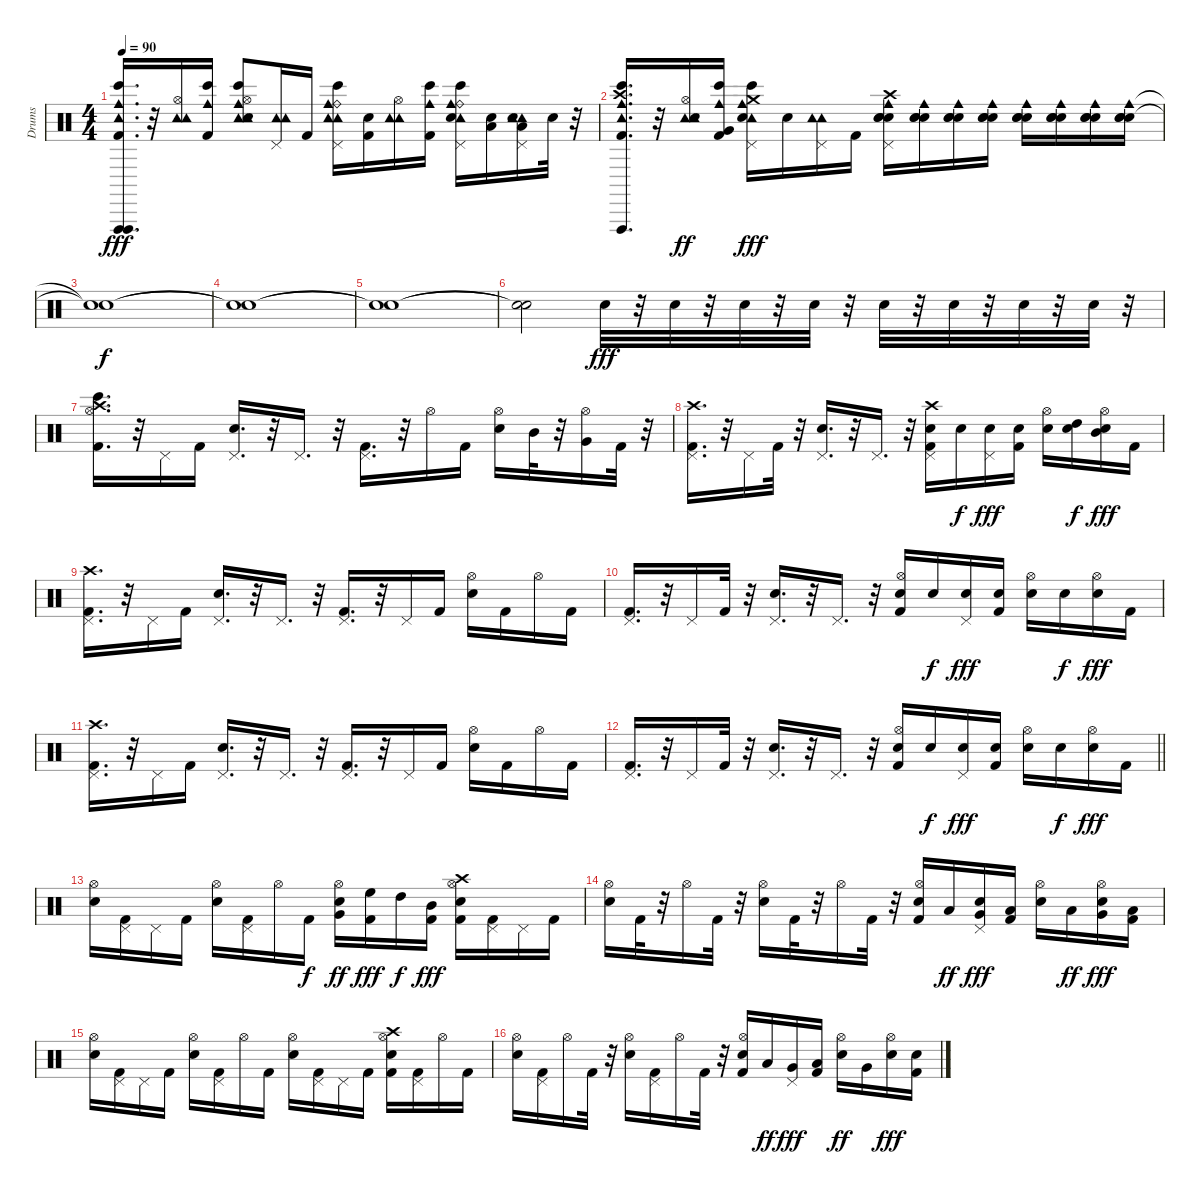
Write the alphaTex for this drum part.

\track ("Drums" "Drums") {instrument percussion}
\staff {score}
\articulation defaults
\ts (4 4)
\tempo 90
\clef neutral
\ks c
("Vibraslap (hit)" "Tambourine (hit)" "Vibraslap (hit)" "Cowbell medium (hit)" "Bongo High (hit)" "Kick (hit) 2").16{d dy fff} r.32 ("Tambourine (hit)" "Hi-Hat (open)" "Tambourine (hit)").16 ("Kick (hit) 2" "Bongo High (hit)" "Cowbell medium (hit)").16 ("Tambourine (hit)" "Hi-Hat (open)" "Cowbell medium (hit)" "Electric Snare (hit)" "Bongo High (hit)" "Tambourine (hit)").8 ("Tambourine (hit)" "Pedal Hi-Hat (hit)" "Tambourine (hit)").16 "Kick (hit) 2".16 ("Tambourine (hit)" "Pedal Hi-Hat (hit)" "Ride (bell)" "Cowbell medium (hit)" "Bongo High (hit)" "Tambourine (hit)").16 ("Kick (hit) 2" "Electric Snare (hit)").16 ("Tambourine (hit)" "Tambourine (hit)" "Hi-Hat (open)").16 ("Cowbell medium (hit)" "Kick (hit) 2" "Bongo High (hit)").16 ("Tambourine (hit)" "Pedal Hi-Hat (hit)" "Ride (bell)" "Cowbell medium (hit)" "Electric Snare (hit)" "Bongo High (hit)").16 ("Low Tom (hit)" "Electric Snare (hit)").16 ("Tambourine (hit)" "Pedal Hi-Hat (hit)" "Tambourine (hit)" "Low Floor Tom (hit)" "Electric Snare (hit)").16 "Electric Snare (hit)".32 r.32 |
("Tambourine (hit)" "Vibraslap (hit)" "Cowbell medium (hit)" "Bongo High (hit)" "Crash high (hit)" "Kick (hit) 2").16{d} r.32 ("Tambourine (hit)" "Hi-Hat (open)" "Tambourine (hit)" "Electric Snare (hit)").16{dy ff} ("Kick (hit) 2" "Bongo High (hit)" "Cowbell medium (hit)" "Very Low Tom (hit)").16 ("Crash medium (hit)" "Tambourine (hit)" "Pedal Hi-Hat (hit)" "Cowbell medium (hit)" "Electric Snare (hit)" "Bongo High (hit)").16{dy fff} "Electric Snare (hit)".16 ("Tambourine (hit)" "Pedal Hi-Hat (hit)" "Tambourine (hit)").16 "Kick (hit) 2".16 ("Pedal Hi-Hat (hit)" "Cowbell medium (hit)" "Crash high (hit)" "Electric Snare (hit)" "Electric Snare (hit)" "Electric Snare (hit)").16 ("Electric Snare (hit)" "Cowbell medium (hit)" "Electric Snare (hit)" "Electric Snare (hit)").16 ("Electric Snare (hit)" "Cowbell medium (hit)" "Electric Snare (hit)" "Electric Snare (hit)").16 ("Electric Snare (hit)" "Electric Snare (hit)" "Cowbell medium (hit)" "Electric Snare (hit)").16 ("Electric Snare (hit)" "Cowbell medium (hit)" "Electric Snare (hit)" "Electric Snare (hit)").16 ("Electric Snare (hit)" "Cowbell medium (hit)" "Electric Snare (hit)" "Electric Snare (hit)").16 ("Electric Snare (hit)" "Cowbell medium (hit)" "Electric Snare (hit)" "Electric Snare (hit)").16 ("Electric Snare (hit)" "Cowbell medium (hit)" "Electric Snare (hit)" "Electric Snare (hit)").16 |
("Snare (hit)"{t} "Snare (hit)"{t}).1{dy f} |
("Snare (hit)"{t} "Snare (hit)"{t}).1 |
("Snare (hit)"{t} "Snare (hit)"{t}).1 |
("Snare (hit)"{t} "Snare (hit)"{t}).2 "Electric Snare (hit)".32{dy fff} r.32 "Electric Snare (hit)".32 r.32 "Electric Snare (hit)".32 r.32 "Electric Snare (hit)".32 r.32 "Electric Snare (hit)".32 r.32 "Electric Snare (hit)".32 r.32 "Electric Snare (hit)".32 r.32 "Electric Snare (hit)".32 r.32 |
("Bongo High (hit)" "Crash high (hit)" "Kick (hit) 2" "Hi-Hat (open)").16{d} r.32 "Pedal Hi-Hat (hit)".16 "Kick (hit) 2".16 ("Electric Snare (hit)" "Pedal Hi-Hat (hit)").16{d} r.32 "Pedal Hi-Hat (hit)".16{d} r.32 ("Kick (hit) 2" "Pedal Hi-Hat (hit)").16{d} r.32 "Hi-Hat (open)".16 "Kick (hit) 2".16 ("Electric Snare (hit)" "Hi-Hat (open)").16 "Mid Tom (hit)".32 r.32 ("Hi-Hat (open)" "Very Low Tom (hit)").16 "Kick (hit) 2".32 r.32 |
("Crash high (hit)" "Kick (hit) 2" "Pedal Hi-Hat (hit)").16{d} r.32 "Pedal Hi-Hat (hit)".16 "Kick (hit) 2".32 r.32 ("Electric Snare (hit)" "Pedal Hi-Hat (hit)").16{d} r.32 "Pedal Hi-Hat (hit)".16{d} r.32 ("Electric Snare (hit)" "Crash high (hit)" "Kick (hit) 2" "Pedal Hi-Hat (hit)").16 "Electric Snare (hit)".16{dy f} ("Electric Snare (hit)" "Pedal Hi-Hat (hit)").16{dy fff} ("Electric Snare (hit)" "Kick (hit) 2").16 ("Electric Snare (hit)" "Hi-Hat (open)").16 ("High Tom (hit)" "Electric Snare (hit)").16{dy f} ("Mid Tom (hit)" "Electric Snare (hit)" "Hi-Hat (open)").16{dy fff} "Kick (hit) 2".16 |
("Crash high (hit)" "Kick (hit) 2" "Pedal Hi-Hat (hit)").16{d} r.32 "Pedal Hi-Hat (hit)".16 "Kick (hit) 2".16 ("Electric Snare (hit)" "Pedal Hi-Hat (hit)").16{d} r.32 "Pedal Hi-Hat (hit)".16{d} r.32 ("Pedal Hi-Hat (hit)" "Kick (hit) 2").16{d} r.32 "Pedal Hi-Hat (hit)".16 "Kick (hit) 2".16 ("Hi-Hat (open)" "Electric Snare (hit)").16 "Kick (hit) 2".16 "Hi-Hat (open)".16 "Kick (hit) 2".16 |
("Pedal Hi-Hat (hit)" "Kick (hit) 2").16{d} r.32 "Pedal Hi-Hat (hit)".16 "Kick (hit) 2".32 r.32 ("Pedal Hi-Hat (hit)" "Electric Snare (hit)").16{d} r.32 "Pedal Hi-Hat (hit)".16{d} r.32 ("Hi-Hat (open)" "Electric Snare (hit)" "Kick (hit) 2").16 "Electric Snare (hit)".16{dy f} ("Pedal Hi-Hat (hit)" "Electric Snare (hit)").16{dy fff} ("Electric Snare (hit)" "Kick (hit) 2").16 ("Hi-Hat (open)" "Electric Snare (hit)").16 "Electric Snare (hit)".16{dy f} ("Hi-Hat (open)" "Electric Snare (hit)").16{dy fff} "Kick (hit) 2".16 |
("Crash high (hit)" "Kick (hit) 2" "Pedal Hi-Hat (hit)").16{d} r.32 "Pedal Hi-Hat (hit)".16 "Kick (hit) 2".16 ("Electric Snare (hit)" "Pedal Hi-Hat (hit)").16{d} r.32 "Pedal Hi-Hat (hit)".16{d} r.32 ("Pedal Hi-Hat (hit)" "Kick (hit) 2").16{d} r.32 "Pedal Hi-Hat (hit)".16 "Kick (hit) 2".16 ("Hi-Hat (open)" "Electric Snare (hit)").16 "Kick (hit) 2".16 "Hi-Hat (open)".16 "Kick (hit) 2".16 |
\barLineRight lightlight
("Pedal Hi-Hat (hit)" "Kick (hit) 2").16{d} r.32 "Pedal Hi-Hat (hit)".16 "Kick (hit) 2".32 r.32 ("Pedal Hi-Hat (hit)" "Electric Snare (hit)").16{d} r.32 "Pedal Hi-Hat (hit)".16{d} r.32 ("Hi-Hat (open)" "Electric Snare (hit)" "Kick (hit) 2").16 "Electric Snare (hit)".16{dy f} ("Pedal Hi-Hat (hit)" "Electric Snare (hit)").16{dy fff} ("Electric Snare (hit)" "Kick (hit) 2").16 ("Hi-Hat (open)" "Electric Snare (hit)").16 "Electric Snare (hit)".16{dy f} ("Hi-Hat (open)" "Electric Snare (hit)").16{dy fff} "Kick (hit) 2".16 |
("Hi-Hat (open)" "Electric Snare (hit)").16 ("Kick (hit) 2" "Pedal Hi-Hat (hit)").16 "Pedal Hi-Hat (hit)".16 "Kick (hit) 2".16 ("Electric Snare (hit)" "Hi-Hat (open)").16 ("Kick (hit) 2" "Pedal Hi-Hat (hit)").16 "Hi-Hat (open)".16 "Kick (hit) 2".16{dy f} ("Electric Snare (hit)" "Hi-Hat (open)" "Very Low Tom (hit)").16{dy ff} ("Kick (hit) 2" "High Floor Tom (hit)").16{dy fff} "High Tom (hit)".16{dy f} ("Kick (hit) 2" "Mid Tom (hit)").16{dy fff} ("Kick (hit) 2" "Crash high (hit)" "Hi-Hat (open)" "Electric Snare (hit)").16 ("Kick (hit) 2" "Pedal Hi-Hat (hit)").16 "Pedal Hi-Hat (hit)".16 "Kick (hit) 2".16 |
("Hi-Hat (open)" "Electric Snare (hit)").16 "Kick (hit) 2".32 r.32 "Hi-Hat (open)".16 "Kick (hit) 2".32 r.32 ("Hi-Hat (open)" "Electric Snare (hit)").16 "Kick (hit) 2".32 r.32 "Hi-Hat (open)".16 "Kick (hit) 2".32 r.32 ("Hi-Hat (open)" "Electric Snare (hit)" "Kick (hit) 2").16 "Low Tom (hit)".16{dy ff} ("Electric Snare (hit)" "Pedal Hi-Hat (hit)" "Very Low Tom (hit)").16{dy fff} ("Low Floor Tom (hit)" "Kick (hit) 2").16 ("Hi-Hat (open)" "Electric Snare (hit)").16 "Low Tom (hit)".16{dy ff} ("Electric Snare (hit)" "Hi-Hat (open)" "Very Low Tom (hit)").16{dy fff} ("Low Floor Tom (hit)" "Kick (hit) 2").16 |
("Hi-Hat (open)" "Electric Snare (hit)").16 ("Pedal Hi-Hat (hit)" "Kick (hit) 2").16 "Pedal Hi-Hat (hit)".16 "Kick (hit) 2".16 ("Electric Snare (hit)" "Hi-Hat (open)").16 ("Pedal Hi-Hat (hit)" "Kick (hit) 2").16 "Hi-Hat (open)".16 "Kick (hit) 2".16 ("Electric Snare (hit)" "Hi-Hat (open)").16 ("Pedal Hi-Hat (hit)" "Kick (hit) 2").16 "Pedal Hi-Hat (hit)".16 "Kick (hit) 2".16 ("Kick (hit) 2" "Crash high (hit)" "Hi-Hat (open)" "Electric Snare (hit)").16 ("Pedal Hi-Hat (hit)" "Kick (hit) 2").16 "Hi-Hat (open)".16 "Kick (hit) 2".16 |
("Hi-Hat (open)" "Electric Snare (hit)").16 ("Pedal Hi-Hat (hit)" "Kick (hit) 2").16 "Hi-Hat (open)".16 "Kick (hit) 2".32 r.32 ("Hi-Hat (open)" "Electric Snare (hit)").16 ("Pedal Hi-Hat (hit)" "Kick (hit) 2").16 "Hi-Hat (open)".16 "Kick (hit) 2".32 r.32 ("Hi-Hat (open)" "Electric Snare (hit)" "Kick (hit) 2").16 "Low Tom (hit)".16{dy ff} ("Pedal Hi-Hat (hit)" "Very Low Tom (hit)").16{dy fff} ("Low Floor Tom (hit)" "Kick (hit) 2").16 ("Hi-Hat (open)" "Electric Snare (hit)").16{dy ff} "Very Low Tom (hit)".16 ("Hi-Hat (open)" "Electric Snare (hit)").16{dy fff} ("Electric Snare (hit)" "Kick (hit) 2").16
